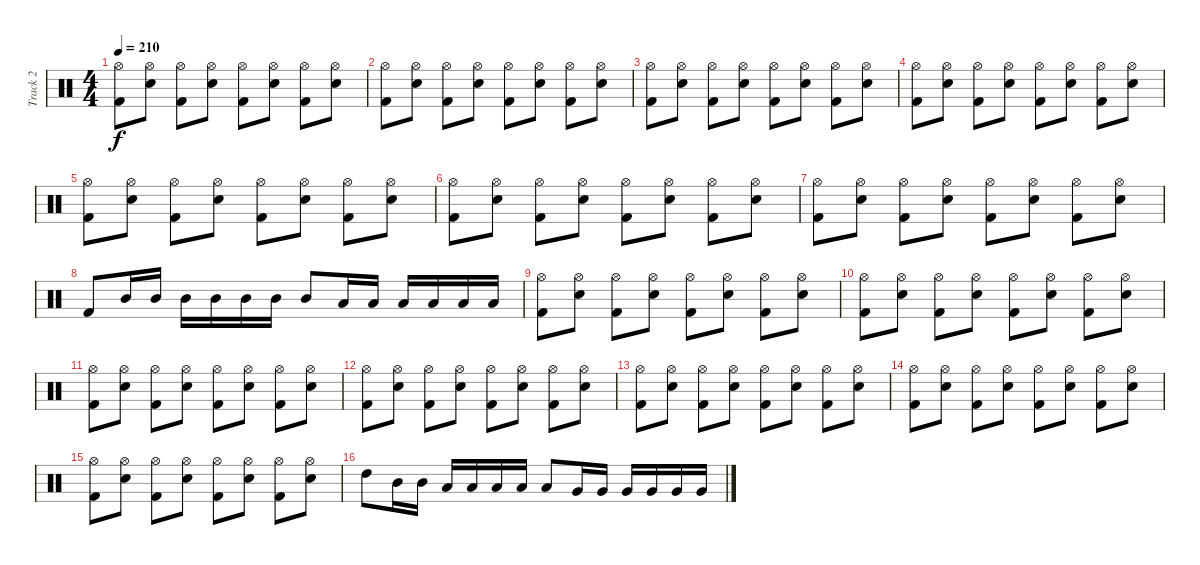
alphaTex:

\track ("Track 2" "Track 2") {instrument percussion}
\staff {score}
\articulation defaults
\ts (4 4)
\tempo 210
\clef neutral
\ks c
("Hi-Hat (open)" "Kick (hit) 2").8{dy f} ("Hi-Hat (open)" "Snare (hit) 2").8 ("Hi-Hat (open)" "Kick (hit) 2").8 ("Hi-Hat (open)" "Snare (hit) 2").8 ("Hi-Hat (open)" "Kick (hit) 2").8 ("Hi-Hat (open)" "Snare (hit) 2").8 ("Hi-Hat (open)" "Kick (hit) 2").8 ("Hi-Hat (open)" "Snare (hit) 2").8 |
("Hi-Hat (open)" "Kick (hit) 2").8 ("Hi-Hat (open)" "Snare (hit) 2").8 ("Hi-Hat (open)" "Kick (hit) 2").8 ("Hi-Hat (open)" "Snare (hit) 2").8 ("Hi-Hat (open)" "Kick (hit) 2").8 ("Hi-Hat (open)" "Snare (hit) 2").8 ("Hi-Hat (open)" "Kick (hit) 2").8 ("Hi-Hat (open)" "Snare (hit) 2").8 |
("Hi-Hat (open)" "Kick (hit) 2").8 ("Hi-Hat (open)" "Snare (hit) 2").8 ("Hi-Hat (open)" "Kick (hit) 2").8 ("Hi-Hat (open)" "Snare (hit) 2").8 ("Hi-Hat (open)" "Kick (hit) 2").8 ("Hi-Hat (open)" "Snare (hit) 2").8 ("Hi-Hat (open)" "Kick (hit) 2").8 ("Hi-Hat (open)" "Snare (hit) 2").8 |
("Hi-Hat (open)" "Kick (hit) 2").8 ("Hi-Hat (open)" "Snare (hit) 2").8 ("Hi-Hat (open)" "Kick (hit) 2").8 ("Hi-Hat (open)" "Snare (hit) 2").8 ("Hi-Hat (open)" "Kick (hit) 2").8 ("Hi-Hat (open)" "Snare (hit) 2").8 ("Hi-Hat (open)" "Kick (hit) 2").8 ("Hi-Hat (open)" "Snare (hit) 2").8 |
("Hi-Hat (open)" "Kick (hit) 2").8 ("Hi-Hat (open)" "Snare (hit) 2").8 ("Hi-Hat (open)" "Kick (hit) 2").8 ("Hi-Hat (open)" "Snare (hit) 2").8 ("Hi-Hat (open)" "Kick (hit) 2").8 ("Hi-Hat (open)" "Snare (hit) 2").8 ("Hi-Hat (open)" "Kick (hit) 2").8 ("Hi-Hat (open)" "Snare (hit) 2").8 |
("Hi-Hat (open)" "Kick (hit) 2").8 ("Hi-Hat (open)" "Snare (hit) 2").8 ("Hi-Hat (open)" "Kick (hit) 2").8 ("Hi-Hat (open)" "Snare (hit) 2").8 ("Hi-Hat (open)" "Kick (hit) 2").8 ("Hi-Hat (open)" "Snare (hit) 2").8 ("Hi-Hat (open)" "Kick (hit) 2").8 ("Hi-Hat (open)" "Snare (hit) 2").8 |
("Hi-Hat (open)" "Kick (hit) 2").8 ("Hi-Hat (open)" "Snare (hit) 2").8 ("Hi-Hat (open)" "Kick (hit) 2").8 ("Hi-Hat (open)" "Snare (hit) 2").8 ("Hi-Hat (open)" "Kick (hit) 2").8 ("Hi-Hat (open)" "Snare (hit) 2").8 ("Hi-Hat (open)" "Kick (hit) 2").8 ("Hi-Hat (open)" "Snare (hit) 2").8 |
"Kick (hit) 2".8 "Mid Tom (hit)".16 "Mid Tom (hit)".16 "Mid Tom (hit)".16 "Mid Tom (hit)".16 "Mid Tom (hit)".16 "Mid Tom (hit)".16 "Mid Tom (hit)".8 "Low Tom (hit)".16 "Low Tom (hit)".16 "Low Tom (hit)".16 "Low Tom (hit)".16 "Low Tom (hit)".16 "Low Tom (hit)".16 |
("Hi-Hat (open)" "Kick (hit) 2").8 ("Hi-Hat (open)" "Snare (hit) 2").8 ("Hi-Hat (open)" "Kick (hit) 2").8 ("Hi-Hat (open)" "Snare (hit) 2").8 ("Hi-Hat (open)" "Kick (hit) 2").8 ("Hi-Hat (open)" "Snare (hit) 2").8 ("Hi-Hat (open)" "Kick (hit) 2").8 ("Hi-Hat (open)" "Snare (hit) 2").8 |
("Hi-Hat (open)" "Kick (hit) 2").8 ("Hi-Hat (open)" "Snare (hit) 2").8 ("Hi-Hat (open)" "Kick (hit) 2").8 ("Hi-Hat (open)" "Snare (hit) 2").8 ("Hi-Hat (open)" "Kick (hit) 2").8 ("Hi-Hat (open)" "Snare (hit) 2").8 ("Hi-Hat (open)" "Kick (hit) 2").8 ("Hi-Hat (open)" "Snare (hit) 2").8 |
("Hi-Hat (open)" "Kick (hit) 2").8 ("Hi-Hat (open)" "Snare (hit) 2").8 ("Hi-Hat (open)" "Kick (hit) 2").8 ("Hi-Hat (open)" "Snare (hit) 2").8 ("Hi-Hat (open)" "Kick (hit) 2").8 ("Hi-Hat (open)" "Snare (hit) 2").8 ("Hi-Hat (open)" "Kick (hit) 2").8 ("Hi-Hat (open)" "Snare (hit) 2").8 |
("Hi-Hat (open)" "Kick (hit) 2").8 ("Hi-Hat (open)" "Snare (hit) 2").8 ("Hi-Hat (open)" "Kick (hit) 2").8 ("Hi-Hat (open)" "Snare (hit) 2").8 ("Hi-Hat (open)" "Kick (hit) 2").8 ("Hi-Hat (open)" "Snare (hit) 2").8 ("Hi-Hat (open)" "Kick (hit) 2").8 ("Hi-Hat (open)" "Snare (hit) 2").8 |
("Hi-Hat (open)" "Kick (hit) 2").8 ("Hi-Hat (open)" "Snare (hit) 2").8 ("Hi-Hat (open)" "Kick (hit) 2").8 ("Hi-Hat (open)" "Snare (hit) 2").8 ("Hi-Hat (open)" "Kick (hit) 2").8 ("Hi-Hat (open)" "Snare (hit) 2").8 ("Hi-Hat (open)" "Kick (hit) 2").8 ("Hi-Hat (open)" "Snare (hit) 2").8 |
("Hi-Hat (open)" "Kick (hit) 2").8 ("Hi-Hat (open)" "Snare (hit) 2").8 ("Hi-Hat (open)" "Kick (hit) 2").8 ("Hi-Hat (open)" "Snare (hit) 2").8 ("Hi-Hat (open)" "Kick (hit) 2").8 ("Hi-Hat (open)" "Snare (hit) 2").8 ("Hi-Hat (open)" "Kick (hit) 2").8 ("Hi-Hat (open)" "Snare (hit) 2").8 |
("Hi-Hat (open)" "Kick (hit) 2").8 ("Hi-Hat (open)" "Snare (hit) 2").8 ("Hi-Hat (open)" "Kick (hit) 2").8 ("Hi-Hat (open)" "Snare (hit) 2").8 ("Hi-Hat (open)" "Kick (hit) 2").8 ("Hi-Hat (open)" "Snare (hit) 2").8 ("Hi-Hat (open)" "Kick (hit) 2").8 ("Hi-Hat (open)" "Snare (hit) 2").8 |
"High Tom (hit)".8 "Mid Tom (hit)".16 "Mid Tom (hit)".16 "Low Tom (hit)".16 "Low Tom (hit)".16 "Low Tom (hit)".16 "Low Tom (hit)".16 "Low Tom (hit)".8 "Very Low Tom (hit)".16 "Very Low Tom (hit)".16 "Very Low Tom (hit)".16 "Very Low Tom (hit)".16 "Very Low Tom (hit)".16 "Very Low Tom (hit)".16
